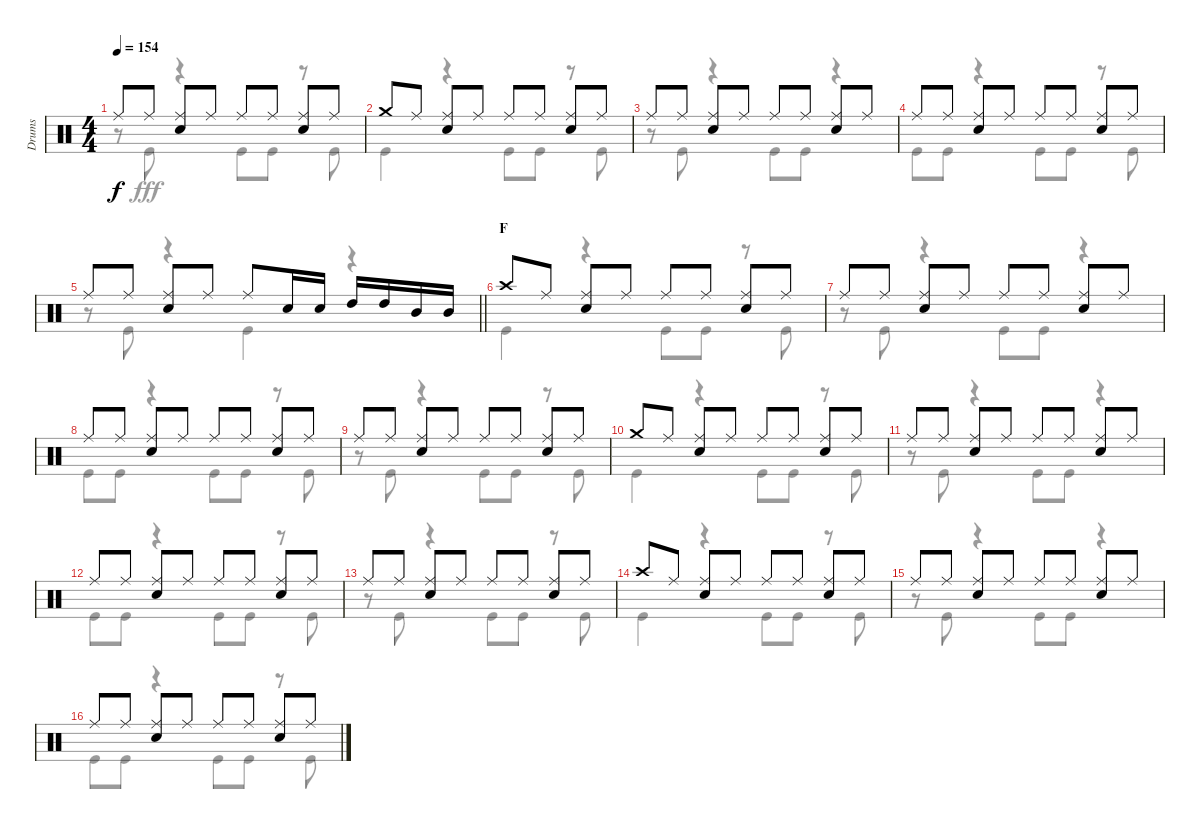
\track ("Drums" "Drums") {instrument percussion}
\staff {score}
\articulation defaults
\voice
\ts (4 4)
\tempo 154
\clef neutral
\ks c "Ride (middle)".8{dy f} "Ride (middle)".8
("Ride (middle)" "Snare (hit) 2").8 "Ride (middle)".8 "Ride (middle)".8 "Ride (middle)".8 ("Ride (middle)" "Snare (hit) 2").8 "Ride (middle)".8 |
"Crash medium (hit)".8 "Ride (middle)".8 ("Ride (middle)" "Snare (hit) 2").8 "Ride (middle)".8 "Ride (middle)".8 "Ride (middle)".8 ("Ride (middle)" "Snare (hit) 2").8 "Ride (middle)".8 |
"Ride (middle)".8 "Ride (middle)".8 ("Ride (middle)" "Snare (hit) 2").8 "Ride (middle)".8 "Ride (middle)".8 "Ride (middle)".8 ("Ride (middle)" "Snare (hit) 2").8 "Ride (middle)".8 |
"Ride (middle)".8 "Ride (middle)".8 ("Ride (middle)" "Snare (hit) 2").8 "Ride (middle)".8 "Ride (middle)".8 "Ride (middle)".8 ("Ride (middle)" "Snare (hit) 2").8 "Ride (middle)".8 |
\barLineRight lightlight "Ride (middle)".8 "Ride (middle)".8
("Ride (middle)" "Snare (hit) 2").8 "Ride (middle)".8 "Ride (middle)".8 "Snare (hit) 2".16 "Snare (hit) 2".16 "High Tom (hit)".16 "High Tom (hit)".16 "Mid Tom (hit)".16 "Mid Tom (hit)".16 |
\section ("" "F")
"Crash high (hit)".8 "Ride (middle)".8 ("Ride (middle)" "Snare (hit) 2").8 "Ride (middle)".8 "Ride (middle)".8 "Ride (middle)".8 ("Ride (middle)" "Snare (hit) 2").8 "Ride (middle)".8 |
"Ride (middle)".8 "Ride (middle)".8 ("Ride (middle)" "Snare (hit) 2").8 "Ride (middle)".8 "Ride (middle)".8 "Ride (middle)".8 ("Ride (middle)" "Snare (hit) 2").8 "Ride (middle)".8 |
"Ride (middle)".8 "Ride (middle)".8 ("Ride (middle)" "Snare (hit) 2").8 "Ride (middle)".8 "Ride (middle)".8 "Ride (middle)".8 ("Ride (middle)" "Snare (hit) 2").8 "Ride (middle)".8 |
"Ride (middle)".8 "Ride (middle)".8 ("Ride (middle)" "Snare (hit) 2").8 "Ride (middle)".8 "Ride (middle)".8 "Ride (middle)".8 ("Ride (middle)" "Snare (hit) 2").8 "Ride (middle)".8 |
"Crash medium (hit)".8 "Ride (middle)".8 ("Ride (middle)" "Snare (hit) 2").8 "Ride (middle)".8 "Ride (middle)".8 "Ride (middle)".8 ("Ride (middle)" "Snare (hit) 2").8 "Ride (middle)".8 |
"Ride (middle)".8 "Ride (middle)".8 ("Ride (middle)" "Snare (hit) 2").8 "Ride (middle)".8 "Ride (middle)".8 "Ride (middle)".8 ("Ride (middle)" "Snare (hit) 2").8 "Ride (middle)".8 |
"Ride (middle)".8 "Ride (middle)".8 ("Ride (middle)" "Snare (hit) 2").8 "Ride (middle)".8 "Ride (middle)".8 "Ride (middle)".8 ("Ride (middle)" "Snare (hit) 2").8 "Ride (middle)".8 |
"Ride (middle)".8 "Ride (middle)".8 ("Ride (middle)" "Snare (hit) 2").8 "Ride (middle)".8 "Ride (middle)".8 "Ride (middle)".8 ("Ride (middle)" "Snare (hit) 2").8 "Ride (middle)".8 |
"Crash high (hit)".8 "Ride (middle)".8 ("Ride (middle)" "Snare (hit) 2").8 "Ride (middle)".8 "Ride (middle)".8 "Ride (middle)".8 ("Ride (middle)" "Snare (hit) 2").8 "Ride (middle)".8 |
"Ride (middle)".8 "Ride (middle)".8 ("Ride (middle)" "Snare (hit) 2").8 "Ride (middle)".8 "Ride (middle)".8 "Ride (middle)".8 ("Ride (middle)" "Snare (hit) 2").8 "Ride (middle)".8 |
"Ride (middle)".8 "Ride (middle)".8 ("Ride (middle)" "Snare (hit) 2").8 "Ride (middle)".8 "Ride (middle)".8 "Ride (middle)".8 ("Ride (middle)" "Snare (hit) 2").8 "Ride (middle)".8
\voice
\clef neutral
\ottava regular
\simile none
\ks c
r.8{dy fff} "Kick (hit)".8 r.4 "Kick (hit)".8 "Kick (hit)".8 r.8 "Kick (hit)".8 |
"Kick (hit)".4 r.4 "Kick (hit)".8 "Kick (hit)".8 r.8 "Kick (hit)".8 |
r.8 "Kick (hit)".8 r.4 "Kick (hit)".8 "Kick (hit)".8 r.4 |
"Kick (hit)".8 "Kick (hit)".8 r.4 "Kick (hit)".8 "Kick (hit)".8 r.8 "Kick (hit)".8 |
\barLineRight lightlight
r.8 "Kick (hit)".8 r.4 "Kick (hit)".4 r.4 |
"Kick (hit)".4 r.4 "Kick (hit)".8 "Kick (hit)".8 r.8 "Kick (hit)".8 |
r.8 "Kick (hit)".8 r.4 "Kick (hit)".8 "Kick (hit)".8 r.4 |
"Kick (hit)".8 "Kick (hit)".8 r.4 "Kick (hit)".8 "Kick (hit)".8 r.8 "Kick (hit)".8 |
r.8 "Kick (hit)".8 r.4 "Kick (hit)".8 "Kick (hit)".8 r.8 "Kick (hit)".8 |
"Kick (hit)".4 r.4 "Kick (hit)".8 "Kick (hit)".8 r.8 "Kick (hit)".8 |
r.8 "Kick (hit)".8 r.4 "Kick (hit)".8 "Kick (hit)".8 r.4 |
"Kick (hit)".8 "Kick (hit)".8 r.4 "Kick (hit)".8 "Kick (hit)".8 r.8 "Kick (hit)".8 |
r.8 "Kick (hit)".8 r.4 "Kick (hit)".8 "Kick (hit)".8 r.8 "Kick (hit)".8 |
"Kick (hit)".4 r.4 "Kick (hit)".8 "Kick (hit)".8 r.8 "Kick (hit)".8 |
r.8 "Kick (hit)".8 r.4 "Kick (hit)".8 "Kick (hit)".8 r.4 |
"Kick (hit)".8 "Kick (hit)".8 r.4 "Kick (hit)".8 "Kick (hit)".8 r.8 "Kick (hit)".8
